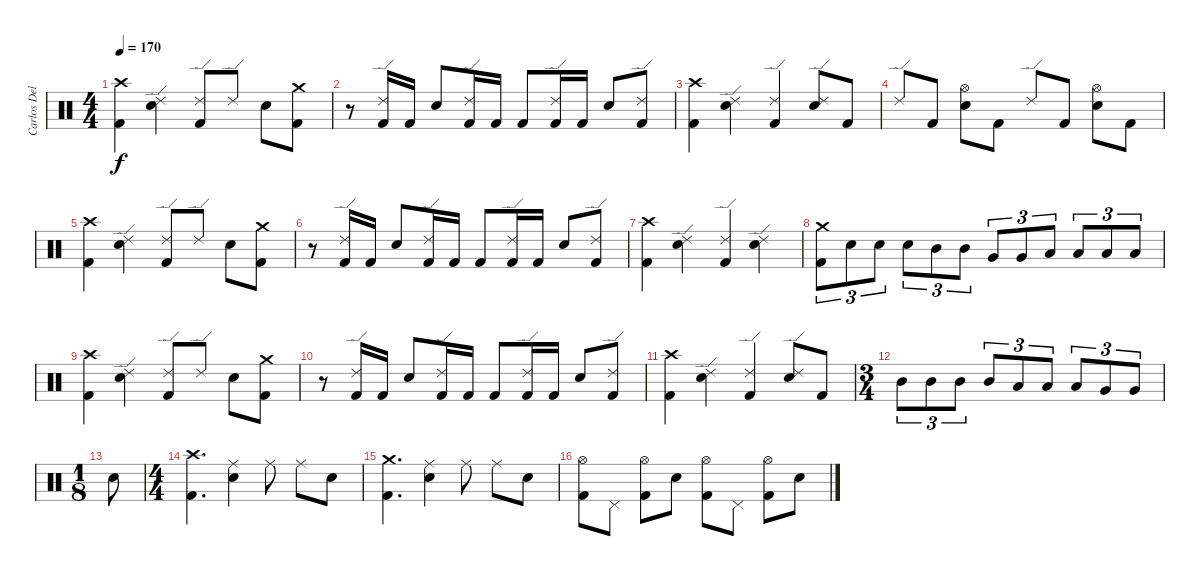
\track ("Carlos Delgado" "Carlos Del") {instrument percussion}
\staff {score}
\articulation defaults
\ts (4 4)
\tempo 170
\clef neutral
\ks c
("Crash high (hit)" "Kick (hit) 2").4{dy f} ("Ride (edge) 2" "Electric Snare (hit)").4 ("Ride (edge) 2" "Kick (hit) 2").8 "Ride (edge) 2".8 "Electric Snare (hit)".8 ("Crash medium (hit)" "Kick (hit) 2").8 |
r.8 ("Ride (edge) 2" "Kick (hit) 2").16 "Kick (hit) 2".16 "Electric Snare (hit)".8 ("Ride (edge) 2" "Kick (hit) 2").16 "Kick (hit) 2".16 "Kick (hit) 2".8 ("Ride (edge) 2" "Kick (hit) 2").16 "Kick (hit) 2".16 "Electric Snare (hit)".8 ("Ride (edge) 2" "Kick (hit) 2").8 |
("Crash high (hit)" "Kick (hit) 2").4 ("Ride (edge) 2" "Electric Snare (hit)").4 ("Ride (edge) 2" "Kick (hit) 2").4 ("Ride (edge) 2" "Electric Snare (hit)").8 "Kick (hit) 2".8 |
"Ride (edge) 2".8 "Kick (hit) 2".8 ("Hi-Hat (open)" "Electric Snare (hit)").8 "Kick (hit) 2".8 "Ride (edge) 2".8 "Kick (hit) 2".8 ("Hi-Hat (open)" "Electric Snare (hit)").8 "Kick (hit) 2".8 |
("Crash high (hit)" "Kick (hit) 2").4 ("Ride (edge) 2" "Electric Snare (hit)").4 ("Ride (edge) 2" "Kick (hit) 2").8 "Ride (edge) 2".8 "Electric Snare (hit)".8 ("Crash medium (hit)" "Kick (hit) 2").8 |
r.8 ("Ride (edge) 2" "Kick (hit) 2").16 "Kick (hit) 2".16 "Electric Snare (hit)".8 ("Ride (edge) 2" "Kick (hit) 2").16 "Kick (hit) 2".16 "Kick (hit) 2".8 ("Ride (edge) 2" "Kick (hit) 2").16 "Kick (hit) 2".16 "Electric Snare (hit)".8 ("Ride (edge) 2" "Kick (hit) 2").8 |
("Crash high (hit)" "Kick (hit) 2").4 ("Ride (edge) 2" "Electric Snare (hit)").4 ("Ride (edge) 2" "Kick (hit) 2").4 ("Ride (edge) 2" "Electric Snare (hit)").4 |
("Crash medium (hit)" "Kick (hit) 2").8{tu (3 2)} "Electric Snare (hit)".8{tu (3 2)} "Electric Snare (hit)".8{tu (3 2)} "Electric Snare (hit)".8{tu (3 2)} "Mid Tom (hit)".8{tu (3 2)} "Mid Tom (hit)".8{tu (3 2)} "Very Low Tom (hit)".8{tu (3 2)} "Very Low Tom (hit)".8{tu (3 2)} "Low Tom (hit)".8{tu (3 2)} "Low Tom (hit)".8{tu (3 2)} "Low Floor Tom (hit)".8{tu (3 2)} "Low Floor Tom (hit)".8{tu (3 2)} |
("Crash high (hit)" "Kick (hit) 2").4 ("Ride (edge) 2" "Electric Snare (hit)").4 ("Ride (edge) 2" "Kick (hit) 2").8 "Ride (edge) 2".8 "Electric Snare (hit)".8 ("Crash medium (hit)" "Kick (hit) 2").8 |
r.8 ("Ride (edge) 2" "Kick (hit) 2").16 "Kick (hit) 2".16 "Electric Snare (hit)".8 ("Ride (edge) 2" "Kick (hit) 2").16 "Kick (hit) 2".16 "Kick (hit) 2".8 ("Ride (edge) 2" "Kick (hit) 2").16 "Kick (hit) 2".16 "Electric Snare (hit)".8 ("Ride (edge) 2" "Kick (hit) 2").8 |
("Crash high (hit)" "Kick (hit) 2").4 ("Ride (edge) 2" "Electric Snare (hit)").4 ("Ride (edge) 2" "Kick (hit) 2").4 ("Ride (edge) 2" "Electric Snare (hit)").8 "Kick (hit) 2".8 |
\ts (3 4)
"Mid Tom (hit)".8{tu (3 2)} "Mid Tom (hit)".8{tu (3 2)} "Mid Tom (hit)".8{tu (3 2)} "Mid Tom (hit)".8{tu (3 2)} "Low Tom (hit)".8{tu (3 2)} "Low Tom (hit)".8{tu (3 2)} "Low Tom (hit)".8{tu (3 2)} "Very Low Tom (hit)".8{tu (3 2)} "Very Low Tom (hit)".8{tu (3 2)} |
\ts (1 8)
"Electric Snare (hit)".8 |
\ts (4 4)
("Crash high (hit)" "Kick (hit) 2").4{d} ("Ride (middle)" "Electric Snare (hit)").4 "Ride (middle)".8 "Ride (middle)".8 "Electric Snare (hit)".8 |
("Crash medium (hit)" "Kick (hit) 2").4{d} ("Ride (middle)" "Electric Snare (hit)").4 "Ride (middle)".8 "Ride (middle)".8 "Electric Snare (hit)".8 |
("Hi-Hat (open)" "Kick (hit) 2").8 "Pedal Hi-Hat (hit)".8 ("Hi-Hat (open)" "Kick (hit) 2").8 "Electric Snare (hit)".8 ("Hi-Hat (open)" "Kick (hit) 2").8 "Pedal Hi-Hat (hit)".8 ("Hi-Hat (open)" "Kick (hit) 2").8 "Electric Snare (hit)".8
